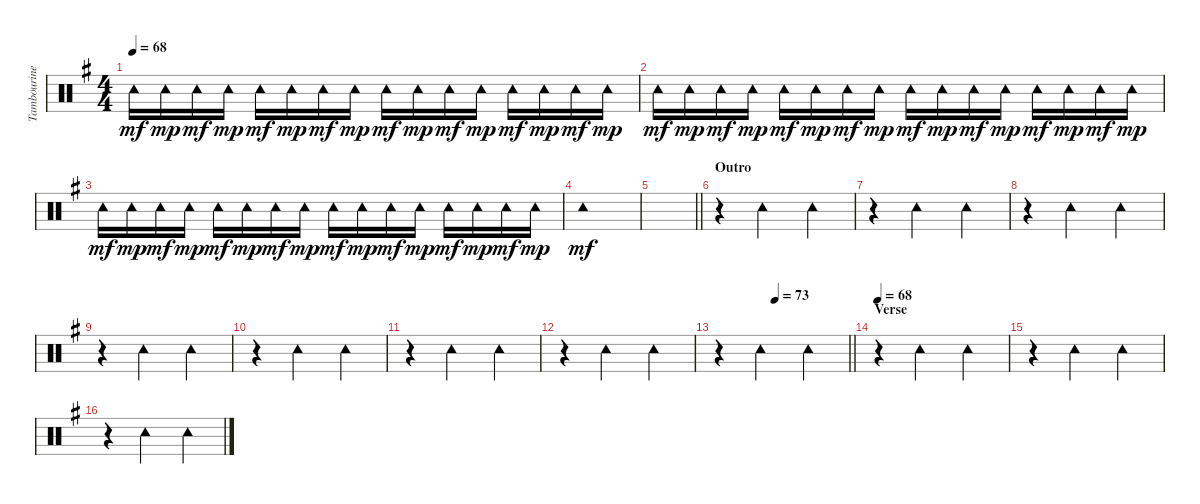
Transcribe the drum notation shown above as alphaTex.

\track ("Tambourine" "Tambourine") {instrument percussion}
\staff {score}
\articulation defaults
\ts (4 4)
\tempo 68
\clef neutral
\ks g "Tambourine (hit)".16{dy mf} "Tambourine (hit)".16{dy mp} "Tambourine (hit)".16{dy mf} "Tambourine (hit)".16{dy mp} "Tambourine (hit)".16{dy mf} "Tambourine (hit)".16{dy mp} "Tambourine (hit)".16{dy mf} "Tambourine (hit)".16{dy mp} "Tambourine (hit)".16{dy mf} "Tambourine (hit)".16{dy mp} "Tambourine (hit)".16{dy mf} "Tambourine (hit)".16{dy mp} "Tambourine (hit)".16{dy mf} "Tambourine (hit)".16{dy mp} "Tambourine (hit)".16{dy mf} "Tambourine (hit)".16{dy mp}
|
"Tambourine (hit)".16{dy mf} "Tambourine (hit)".16{dy mp} "Tambourine (hit)".16{dy mf} "Tambourine (hit)".16{dy mp} "Tambourine (hit)".16{dy mf} "Tambourine (hit)".16{dy mp} "Tambourine (hit)".16{dy mf} "Tambourine (hit)".16{dy mp} "Tambourine (hit)".16{dy mf} "Tambourine (hit)".16{dy mp} "Tambourine (hit)".16{dy mf} "Tambourine (hit)".16{dy mp} "Tambourine (hit)".16{dy mf} "Tambourine (hit)".16{dy mp} "Tambourine (hit)".16{dy mf} "Tambourine (hit)".16{dy mp} |
"Tambourine (hit)".16{dy mf} "Tambourine (hit)".16{dy mp} "Tambourine (hit)".16{dy mf} "Tambourine (hit)".16{dy mp} "Tambourine (hit)".16{dy mf} "Tambourine (hit)".16{dy mp} "Tambourine (hit)".16{dy mf} "Tambourine (hit)".16{dy mp} "Tambourine (hit)".16{dy mf} "Tambourine (hit)".16{dy mp} "Tambourine (hit)".16{dy mf} "Tambourine (hit)".16{dy mp} "Tambourine (hit)".16{dy mf} "Tambourine (hit)".16{dy mp} "Tambourine (hit)".16{dy mf} "Tambourine (hit)".16{dy mp} |
"Tambourine (hit)".1{dy mf} |
\barLineRight lightlight
|
\section ("" "Outro")
r.4 "Tambourine (hit)".2 "Tambourine (hit)".4 |
r.4 "Tambourine (hit)".2 "Tambourine (hit)".4 |
r.4 "Tambourine (hit)".2 "Tambourine (hit)".4 |
r.4 "Tambourine (hit)".2 "Tambourine (hit)".4 |
r.4 "Tambourine (hit)".2 "Tambourine (hit)".4 |
r.4 "Tambourine (hit)".2 "Tambourine (hit)".4 |
r.4 "Tambourine (hit)".2 "Tambourine (hit)".4 |
\tempo (73 0.4375)
\barLineRight lightlight
r.4 "Tambourine (hit)".2 "Tambourine (hit)".4 |
\section ("" "Verse")
\tempo 68
r.4 "Tambourine (hit)".2 "Tambourine (hit)".4 |
r.4 "Tambourine (hit)".2 "Tambourine (hit)".4 |
r.4 "Tambourine (hit)".2 "Tambourine (hit)".4
